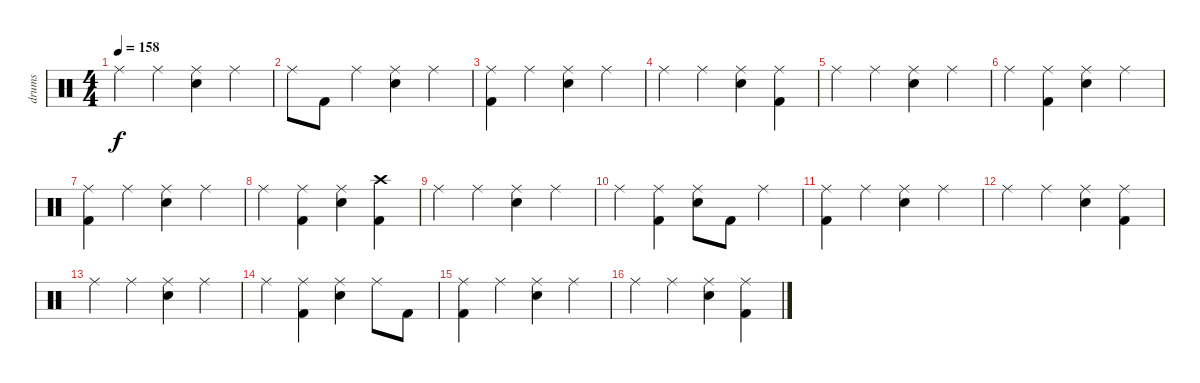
\track ("drums" "drums") {instrument percussion}
\staff {score}
\articulation defaults
\ts (4 4)
\tempo 158
\clef neutral
\ks c "Ride (middle)".4{dy f} "Ride (middle)".4
("Ride (middle)" "Electric Snare (hit)").4 "Ride (middle)".4 |
"Ride (middle)".8 "Kick (hit) 2".8 "Ride (middle)".4 ("Ride (middle)" "Electric Snare (hit)").4 "Ride (middle)".4 |
("Ride (middle)" "Kick (hit) 2").4 "Ride (middle)".4 ("Ride (middle)" "Electric Snare (hit)").4 "Ride (middle)".4 |
"Ride (middle)".4 "Ride (middle)".4 ("Ride (middle)" "Electric Snare (hit)").4 ("Ride (middle)" "Kick (hit) 2").4 |
"Ride (middle)".4 "Ride (middle)".4 ("Ride (middle)" "Electric Snare (hit)").4 "Ride (middle)".4 |
"Ride (middle)".4 ("Ride (middle)" "Kick (hit) 2").4 ("Ride (middle)" "Electric Snare (hit)").4 "Ride (middle)".4 |
("Ride (middle)" "Kick (hit) 2").4 "Ride (middle)".4 ("Ride (middle)" "Electric Snare (hit)").4 "Ride (middle)".4 |
"Ride (middle)".4 ("Ride (middle)" "Kick (hit) 2").4 ("Ride (middle)" "Electric Snare (hit)").4 ("Crash high (hit)" "Kick (hit) 2").4 |
"Ride (middle)".4 "Ride (middle)".4 ("Ride (middle)" "Electric Snare (hit)").4 "Ride (middle)".4 |
"Ride (middle)".4 ("Ride (middle)" "Kick (hit) 2").4 ("Ride (middle)" "Electric Snare (hit)").8 "Kick (hit) 2".8 "Ride (middle)".4 |
("Ride (middle)" "Kick (hit) 2").4 "Ride (middle)".4 ("Ride (middle)" "Electric Snare (hit)").4 "Ride (middle)".4 |
"Ride (middle)".4 "Ride (middle)".4 ("Ride (middle)" "Electric Snare (hit)").4 ("Ride (middle)" "Kick (hit) 2").4 |
"Ride (middle)".4 "Ride (middle)".4 ("Ride (middle)" "Electric Snare (hit)").4 "Ride (middle)".4 |
"Ride (middle)".4 ("Ride (middle)" "Kick (hit) 2").4 ("Ride (middle)" "Electric Snare (hit)").4 "Ride (middle)".8 "Kick (hit) 2".8 |
("Ride (middle)" "Kick (hit) 2").4 "Ride (middle)".4 ("Ride (middle)" "Electric Snare (hit)").4 "Ride (middle)".4 |
"Ride (middle)".4 "Ride (middle)".4 ("Ride (middle)" "Electric Snare (hit)").4 ("Ride (middle)" "Kick (hit) 2").4
